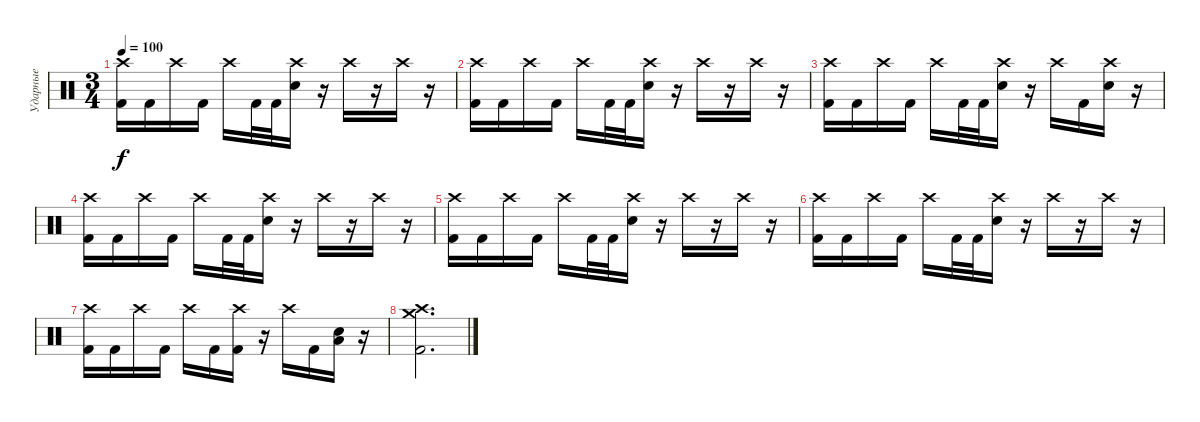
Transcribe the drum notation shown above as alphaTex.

\track ("Ударные" "Ударные") {instrument percussion}
\staff {score}
\articulation defaults
\ts (3 4)
\tempo 100
\clef neutral
\ks c
("Crash high (hit)" "Kick (hit) 2").16{dy f} "Kick (hit) 2".16 "Crash high (hit)".16 "Kick (hit) 2".16 "Crash high (hit)".16 "Kick (hit) 2".32 "Kick (hit) 2".32 ("Crash high (hit)" "Electric Snare (hit)").16 r.16 "Crash high (hit)".16 r.16 "Crash high (hit)".16 r.16 |
("Crash high (hit)" "Kick (hit) 2").16 "Kick (hit) 2".16 "Crash high (hit)".16 "Kick (hit) 2".16 "Crash high (hit)".16 "Kick (hit) 2".32 "Kick (hit) 2".32 ("Crash high (hit)" "Electric Snare (hit)").16 r.16 "Crash high (hit)".16 r.16 "Crash high (hit)".16 r.16 |
("Crash high (hit)" "Kick (hit) 2").16 "Kick (hit) 2".16 "Crash high (hit)".16 "Kick (hit) 2".16 "Crash high (hit)".16 "Kick (hit) 2".32 "Kick (hit) 2".32 ("Crash high (hit)" "Electric Snare (hit)").16 r.16 "Crash high (hit)".16 "Kick (hit) 2".16 ("Crash high (hit)" "Electric Snare (hit)").16 r.16 |
("Crash high (hit)" "Kick (hit) 2").16 "Kick (hit) 2".16 "Crash high (hit)".16 "Kick (hit) 2".16 "Crash high (hit)".16 "Kick (hit) 2".32 "Kick (hit) 2".32 ("Crash high (hit)" "Electric Snare (hit)").16 r.16 "Crash high (hit)".16 r.16 "Crash high (hit)".16 r.16 |
("Crash high (hit)" "Kick (hit) 2").16 "Kick (hit) 2".16 "Crash high (hit)".16 "Kick (hit) 2".16 "Crash high (hit)".16 "Kick (hit) 2".32 "Kick (hit) 2".32 ("Crash high (hit)" "Electric Snare (hit)").16 r.16 "Crash high (hit)".16 r.16 "Crash high (hit)".16 r.16 |
("Crash high (hit)" "Kick (hit) 2").16 "Kick (hit) 2".16 "Crash high (hit)".16 "Kick (hit) 2".16 "Crash high (hit)".16 "Kick (hit) 2".32 "Kick (hit) 2".32 ("Crash high (hit)" "Electric Snare (hit)").16 r.16 "Crash high (hit)".16 r.16 "Crash high (hit)".16 r.16 |
("Crash high (hit)" "Kick (hit) 2").16 "Kick (hit) 2".16 "Crash high (hit)".16 "Kick (hit) 2".16 "Crash high (hit)".16 "Kick (hit) 2".16 ("Crash high (hit)" "Kick (hit) 2").16 r.16 "Crash high (hit)".16 "Kick (hit) 2".16 ("Low Tom (hit)" "Electric Snare (hit)").16 r.16 |
("Crash medium (hit)" "Crash high (hit)" "Kick (hit) 2").2{d}
